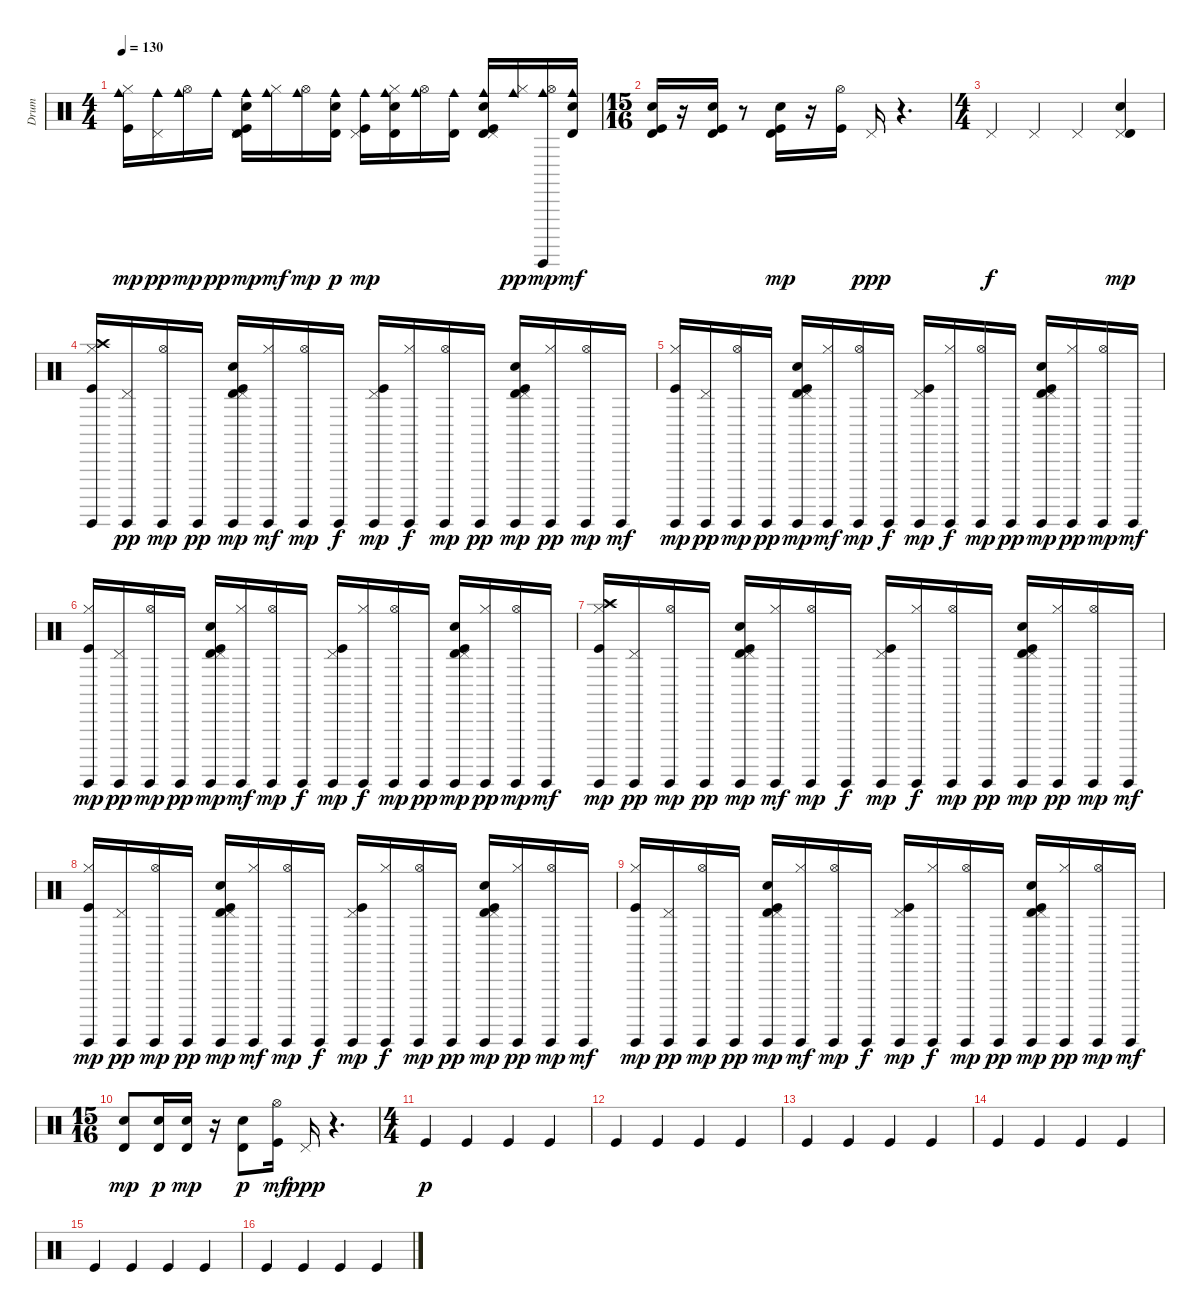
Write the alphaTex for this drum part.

\track ("Drum" "Drum") {instrument percussion}
\staff {score}
\articulation defaults
\ts (4 4)
\tempo 130
\clef neutral
\ks c
("Cowbell medium (hit)" "Hi-Hat (closed)" "Kick (hit)").16{dy mp} ("Cowbell medium (hit)" "Pedal Hi-Hat (hit)").16{dy pp} ("Cowbell medium (hit)" "Hi-Hat (open)").16{dy mp} "Cowbell medium (hit)".16{dy pp} ("Cowbell medium (hit)" "Electric Snare (hit)" "Timbale high (hit)" "Pedal Hi-Hat (hit)" "Kick (hit)").16{dy mp} ("Cowbell medium (hit)" "Hi-Hat (closed)").16{dy mf} ("Cowbell medium (hit)" "Hi-Hat (open)").16{dy mp} ("Cowbell medium (hit)" "Electric Snare (hit)" "Timbale high (hit)").16{dy p} ("Cowbell medium (hit)" "Pedal Hi-Hat (hit)" "Kick (hit)").16{dy mp} ("Cowbell medium (hit)" "Electric Snare (hit)" "Timbale high (hit)" "Hi-Hat (closed)").16 ("Cowbell medium (hit)" "Hi-Hat (open)").16 ("Cowbell medium (hit)" "Timbale high (hit)").16 ("Cowbell medium (hit)" "Electric Snare (hit)" "Timbale high (hit)" "Pedal Hi-Hat (hit)" "Kick (hit)").16 ("Cowbell medium (hit)" "Hi-Hat (closed)").16{dy pp} ("Cowbell medium (hit)" "Guiro (hit)" "Hi-Hat (open)").16{dy mp} ("Cowbell medium (hit)" "Electric Snare (hit)" "Timbale high (hit)").16{dy mf} |
\ts (15 16)
("Timbale high (hit)" "Electric Snare (hit)" "Kick (hit)").16 r.16 ("Timbale high (hit)" "Electric Snare (hit)" "Kick (hit)").16 r.8 ("Electric Snare (hit)" "Timbale high (hit)" "Kick (hit)").16{dy mp} r.16 ("Hi-Hat (open)" "Kick (hit)").16 "Pedal Hi-Hat (hit)".16{dy ppp} r.4{d} |
\ts (4 4)
"Pedal Hi-Hat (hit)".4{dy f} "Pedal Hi-Hat (hit)".4 "Pedal Hi-Hat (hit)".4 ("Pedal Hi-Hat (hit)" "Electric Snare (hit)" "Timbale high (hit)").4{dy mp} |
("Crash high (hit)" "Guiro (hit)" "Hi-Hat (closed)" "Kick (hit)").16 ("Guiro (hit)" "Pedal Hi-Hat (hit)").16{dy pp} ("Guiro (hit)" "Hi-Hat (open)").16{dy mp} "Guiro (hit)".16{dy pp} ("Guiro (hit)" "Electric Snare (hit)" "Timbale high (hit)" "Pedal Hi-Hat (hit)" "Kick (hit)").16{dy mp} ("Guiro (hit)" "Hi-Hat (closed)").16{dy mf} ("Guiro (hit)" "Hi-Hat (open)").16{dy mp} "Guiro (hit)".16{dy f} ("Guiro (hit)" "Pedal Hi-Hat (hit)" "Kick (hit)").16{dy mp} ("Guiro (hit)" "Hi-Hat (closed)").16{dy f} ("Guiro (hit)" "Hi-Hat (open)").16{dy mp} "Guiro (hit)".16{dy pp} ("Guiro (hit)" "Electric Snare (hit)" "Timbale high (hit)" "Pedal Hi-Hat (hit)" "Kick (hit)").16{dy mp} ("Guiro (hit)" "Hi-Hat (closed)").16{dy pp} ("Guiro (hit)" "Hi-Hat (open)").16{dy mp} "Guiro (hit)".16{dy mf} |
("Guiro (hit)" "Hi-Hat (closed)" "Kick (hit)").16{dy mp} ("Guiro (hit)" "Pedal Hi-Hat (hit)").16{dy pp} ("Guiro (hit)" "Hi-Hat (open)").16{dy mp} "Guiro (hit)".16{dy pp} ("Guiro (hit)" "Electric Snare (hit)" "Timbale high (hit)" "Pedal Hi-Hat (hit)" "Kick (hit)").16{dy mp} ("Guiro (hit)" "Hi-Hat (closed)").16{dy mf} ("Guiro (hit)" "Hi-Hat (open)").16{dy mp} "Guiro (hit)".16{dy f} ("Guiro (hit)" "Pedal Hi-Hat (hit)" "Kick (hit)").16{dy mp} ("Guiro (hit)" "Hi-Hat (closed)").16{dy f} ("Guiro (hit)" "Hi-Hat (open)").16{dy mp} "Guiro (hit)".16{dy pp} ("Guiro (hit)" "Electric Snare (hit)" "Timbale high (hit)" "Pedal Hi-Hat (hit)" "Kick (hit)").16{dy mp} ("Guiro (hit)" "Hi-Hat (closed)").16{dy pp} ("Guiro (hit)" "Hi-Hat (open)").16{dy mp} "Guiro (hit)".16{dy mf} |
("Guiro (hit)" "Hi-Hat (closed)" "Kick (hit)").16{dy mp} ("Guiro (hit)" "Pedal Hi-Hat (hit)").16{dy pp} ("Guiro (hit)" "Hi-Hat (open)").16{dy mp} "Guiro (hit)".16{dy pp} ("Guiro (hit)" "Electric Snare (hit)" "Timbale high (hit)" "Pedal Hi-Hat (hit)" "Kick (hit)").16{dy mp} ("Guiro (hit)" "Hi-Hat (closed)").16{dy mf} ("Guiro (hit)" "Hi-Hat (open)").16{dy mp} "Guiro (hit)".16{dy f} ("Guiro (hit)" "Pedal Hi-Hat (hit)" "Kick (hit)").16{dy mp} ("Guiro (hit)" "Hi-Hat (closed)").16{dy f} ("Guiro (hit)" "Hi-Hat (open)").16{dy mp} "Guiro (hit)".16{dy pp} ("Guiro (hit)" "Electric Snare (hit)" "Timbale high (hit)" "Pedal Hi-Hat (hit)" "Kick (hit)").16{dy mp} ("Guiro (hit)" "Hi-Hat (closed)").16{dy pp} ("Guiro (hit)" "Hi-Hat (open)").16{dy mp} "Guiro (hit)".16{dy mf} |
("Splash (hit)" "Guiro (hit)" "Crash high (hit)" "Hi-Hat (closed)" "Kick (hit)").16{dy mp} ("Guiro (hit)" "Pedal Hi-Hat (hit)").16{dy pp} ("Guiro (hit)" "Hi-Hat (open)").16{dy mp} "Guiro (hit)".16{dy pp} ("Guiro (hit)" "Electric Snare (hit)" "Timbale high (hit)" "Pedal Hi-Hat (hit)" "Kick (hit)").16{dy mp} ("Guiro (hit)" "Hi-Hat (closed)").16{dy mf} ("Guiro (hit)" "Hi-Hat (open)").16{dy mp} "Guiro (hit)".16{dy f} ("Guiro (hit)" "Pedal Hi-Hat (hit)" "Kick (hit)").16{dy mp} ("Guiro (hit)" "Hi-Hat (closed)").16{dy f} ("Guiro (hit)" "Hi-Hat (open)").16{dy mp} "Guiro (hit)".16{dy pp} ("Guiro (hit)" "Electric Snare (hit)" "Timbale high (hit)" "Pedal Hi-Hat (hit)" "Kick (hit)").16{dy mp} ("Guiro (hit)" "Hi-Hat (closed)").16{dy pp} ("Guiro (hit)" "Hi-Hat (open)").16{dy mp} "Guiro (hit)".16{dy mf} |
("Guiro (hit)" "Hi-Hat (closed)" "Kick (hit)").16{dy mp} ("Guiro (hit)" "Pedal Hi-Hat (hit)").16{dy pp} ("Guiro (hit)" "Hi-Hat (open)").16{dy mp} "Guiro (hit)".16{dy pp} ("Guiro (hit)" "Electric Snare (hit)" "Timbale high (hit)" "Pedal Hi-Hat (hit)" "Kick (hit)").16{dy mp} ("Guiro (hit)" "Hi-Hat (closed)").16{dy mf} ("Guiro (hit)" "Hi-Hat (open)").16{dy mp} "Guiro (hit)".16{dy f} ("Guiro (hit)" "Pedal Hi-Hat (hit)" "Kick (hit)").16{dy mp} ("Guiro (hit)" "Hi-Hat (closed)").16{dy f} ("Guiro (hit)" "Hi-Hat (open)").16{dy mp} "Guiro (hit)".16{dy pp} ("Guiro (hit)" "Electric Snare (hit)" "Timbale high (hit)" "Pedal Hi-Hat (hit)" "Kick (hit)").16{dy mp} ("Guiro (hit)" "Hi-Hat (closed)").16{dy pp} ("Guiro (hit)" "Hi-Hat (open)").16{dy mp} "Guiro (hit)".16{dy mf} |
("Guiro (hit)" "Hi-Hat (closed)" "Kick (hit)").16{dy mp} ("Guiro (hit)" "Pedal Hi-Hat (hit)").16{dy pp} ("Guiro (hit)" "Hi-Hat (open)").16{dy mp} "Guiro (hit)".16{dy pp} ("Guiro (hit)" "Electric Snare (hit)" "Timbale high (hit)" "Pedal Hi-Hat (hit)" "Kick (hit)").16{dy mp} ("Guiro (hit)" "Hi-Hat (closed)").16{dy mf} ("Guiro (hit)" "Hi-Hat (open)").16{dy mp} "Guiro (hit)".16{dy f} ("Guiro (hit)" "Pedal Hi-Hat (hit)" "Kick (hit)").16{dy mp} ("Guiro (hit)" "Hi-Hat (closed)").16{dy f} ("Guiro (hit)" "Hi-Hat (open)").16{dy mp} "Guiro (hit)".16{dy pp} ("Guiro (hit)" "Electric Snare (hit)" "Timbale high (hit)" "Pedal Hi-Hat (hit)" "Kick (hit)").16{dy mp} ("Guiro (hit)" "Hi-Hat (closed)").16{dy pp} ("Guiro (hit)" "Hi-Hat (open)").16{dy mp} "Guiro (hit)".16{dy mf} |
\ts (15 16)
("Timbale high (hit)" "Electric Snare (hit)").8{dy mp} ("Timbale high (hit)" "Electric Snare (hit)").16{dy p} ("Timbale high (hit)" "Electric Snare (hit)").16{dy mp} r.16 ("Timbale high (hit)" "Electric Snare (hit)").8{dy p} ("Hi-Hat (open)" "Kick (hit)").16{dy mf} "Pedal Hi-Hat (hit)".16{dy ppp} r.4{d} |
\ts (4 4)
"Kick (hit)".4{dy p} "Kick (hit)".4 "Kick (hit)".4 "Kick (hit)".4 |
"Kick (hit)".4 "Kick (hit)".4 "Kick (hit)".4 "Kick (hit)".4 |
"Kick (hit)".4 "Kick (hit)".4 "Kick (hit)".4 "Kick (hit)".4 |
"Kick (hit)".4 "Kick (hit)".4 "Kick (hit)".4 "Kick (hit)".4 |
"Kick (hit)".4 "Kick (hit)".4 "Kick (hit)".4 "Kick (hit)".4 |
"Kick (hit)".4 "Kick (hit)".4 "Kick (hit)".4 "Kick (hit)".4
